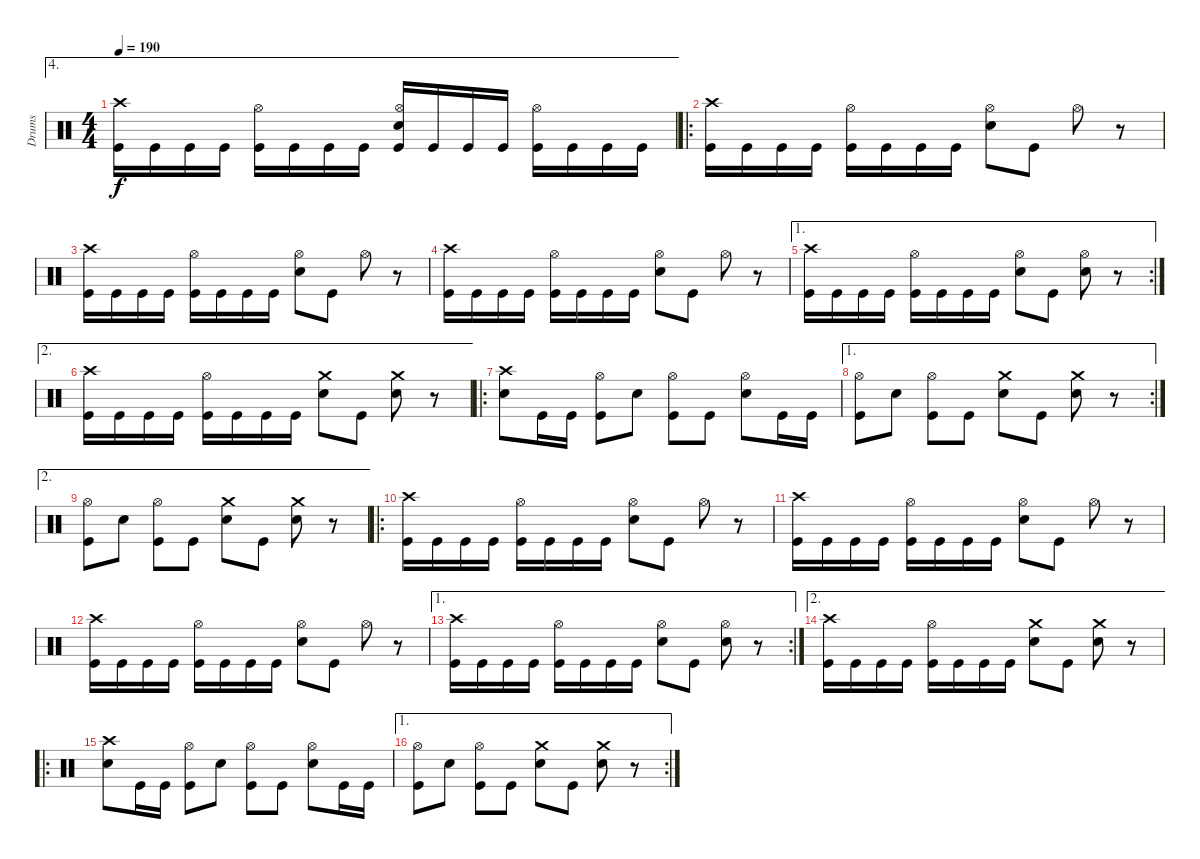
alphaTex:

\track ("Drums" "Drums") {instrument percussion}
\staff {score}
\articulation defaults
\ae 4
\ts (4 4)
\tempo 190
\clef neutral
\ks c
("Crash high (hit)" "Kick (hit)").16{dy f} "Kick (hit)".16 "Kick (hit)".16 "Kick (hit)".16 ("Hi-Hat (open)" "Kick (hit)").16 "Kick (hit)".16 "Kick (hit)".16 "Kick (hit)".16 ("Hi-Hat (open)" "Electric Snare (hit)" "Kick (hit)").16 "Kick (hit)".16 "Kick (hit)".16 "Kick (hit)".16 ("Hi-Hat (open)" "Kick (hit)").16 "Kick (hit)".16 "Kick (hit)".16 "Kick (hit)".16 |
\ro
("Crash high (hit)" "Kick (hit)").16 "Kick (hit)".16 "Kick (hit)".16 "Kick (hit)".16 ("Hi-Hat (open)" "Kick (hit)").16 "Kick (hit)".16 "Kick (hit)".16 "Kick (hit)".16 ("Hi-Hat (open)" "Electric Snare (hit)").8 "Kick (hit)".8 "Hi-Hat (open)".8 r.8 |
("Crash high (hit)" "Kick (hit)").16 "Kick (hit)".16 "Kick (hit)".16 "Kick (hit)".16 ("Hi-Hat (open)" "Kick (hit)").16 "Kick (hit)".16 "Kick (hit)".16 "Kick (hit)".16 ("Hi-Hat (open)" "Electric Snare (hit)").8 "Kick (hit)".8 "Hi-Hat (open)".8 r.8 |
("Crash high (hit)" "Kick (hit)").16 "Kick (hit)".16 "Kick (hit)".16 "Kick (hit)".16 ("Hi-Hat (open)" "Kick (hit)").16 "Kick (hit)".16 "Kick (hit)".16 "Kick (hit)".16 ("Hi-Hat (open)" "Electric Snare (hit)").8 "Kick (hit)".8 "Hi-Hat (open)".8 r.8 |
\ae 1
\rc 2
("Crash high (hit)" "Kick (hit)").16 "Kick (hit)".16 "Kick (hit)".16 "Kick (hit)".16 ("Hi-Hat (open)" "Kick (hit)").16 "Kick (hit)".16 "Kick (hit)".16 "Kick (hit)".16 ("Hi-Hat (open)" "Electric Snare (hit)").8 "Kick (hit)".8 ("Hi-Hat (open)" "Electric Snare (hit)").8 r.8 |
\ae 2
("Crash high (hit)" "Kick (hit)").16 "Kick (hit)".16 "Kick (hit)".16 "Kick (hit)".16 ("Hi-Hat (open)" "Kick (hit)").16 "Kick (hit)".16 "Kick (hit)".16 "Kick (hit)".16 ("Crash medium (hit)" "Electric Snare (hit)").8 "Kick (hit)".8 ("Crash medium (hit)" "Electric Snare (hit)").8 r.8 |
\ro
("Crash high (hit)" "Electric Snare (hit)").8 "Kick (hit)".16 "Kick (hit)".16 ("Hi-Hat (open)" "Kick (hit)").8 "Electric Snare (hit)".8 ("Hi-Hat (open)" "Kick (hit)").8 "Kick (hit)".8 ("Hi-Hat (open)" "Electric Snare (hit)").8 "Kick (hit)".16 "Kick (hit)".16 |
\ae 1
\rc 2
("Hi-Hat (open)" "Kick (hit)").8 "Electric Snare (hit)".8 ("Hi-Hat (open)" "Kick (hit)").8 "Kick (hit)".8 ("Crash medium (hit)" "Electric Snare (hit)").8 "Kick (hit)".8 ("Crash medium (hit)" "Electric Snare (hit)").8 r.8 |
\ae 2
("Hi-Hat (open)" "Kick (hit)").8 "Electric Snare (hit)".8 ("Hi-Hat (open)" "Kick (hit)").8 "Kick (hit)".8 ("Crash medium (hit)" "Electric Snare (hit)").8 "Kick (hit)".8 ("Crash medium (hit)" "Electric Snare (hit)").8 r.8 |
\ro
("Crash high (hit)" "Kick (hit)").16 "Kick (hit)".16 "Kick (hit)".16 "Kick (hit)".16 ("Hi-Hat (open)" "Kick (hit)").16 "Kick (hit)".16 "Kick (hit)".16 "Kick (hit)".16 ("Hi-Hat (open)" "Electric Snare (hit)").8 "Kick (hit)".8 "Hi-Hat (open)".8 r.8 |
("Crash high (hit)" "Kick (hit)").16 "Kick (hit)".16 "Kick (hit)".16 "Kick (hit)".16 ("Hi-Hat (open)" "Kick (hit)").16 "Kick (hit)".16 "Kick (hit)".16 "Kick (hit)".16 ("Hi-Hat (open)" "Electric Snare (hit)").8 "Kick (hit)".8 "Hi-Hat (open)".8 r.8 |
("Crash high (hit)" "Kick (hit)").16 "Kick (hit)".16 "Kick (hit)".16 "Kick (hit)".16 ("Hi-Hat (open)" "Kick (hit)").16 "Kick (hit)".16 "Kick (hit)".16 "Kick (hit)".16 ("Hi-Hat (open)" "Electric Snare (hit)").8 "Kick (hit)".8 "Hi-Hat (open)".8 r.8 |
\ae 1
\rc 2
("Crash high (hit)" "Kick (hit)").16 "Kick (hit)".16 "Kick (hit)".16 "Kick (hit)".16 ("Hi-Hat (open)" "Kick (hit)").16 "Kick (hit)".16 "Kick (hit)".16 "Kick (hit)".16 ("Hi-Hat (open)" "Electric Snare (hit)").8 "Kick (hit)".8 ("Hi-Hat (open)" "Electric Snare (hit)").8 r.8 |
\ae 2
("Crash high (hit)" "Kick (hit)").16 "Kick (hit)".16 "Kick (hit)".16 "Kick (hit)".16 ("Hi-Hat (open)" "Kick (hit)").16 "Kick (hit)".16 "Kick (hit)".16 "Kick (hit)".16 ("Crash medium (hit)" "Electric Snare (hit)").8 "Kick (hit)".8 ("Crash medium (hit)" "Electric Snare (hit)").8 r.8 |
\ro
("Crash high (hit)" "Electric Snare (hit)").8 "Kick (hit)".16 "Kick (hit)".16 ("Hi-Hat (open)" "Kick (hit)").8 "Electric Snare (hit)".8 ("Hi-Hat (open)" "Kick (hit)").8 "Kick (hit)".8 ("Hi-Hat (open)" "Electric Snare (hit)").8 "Kick (hit)".16 "Kick (hit)".16 |
\ae 1
\rc 2
("Hi-Hat (open)" "Kick (hit)").8 "Electric Snare (hit)".8 ("Hi-Hat (open)" "Kick (hit)").8 "Kick (hit)".8 ("Crash medium (hit)" "Electric Snare (hit)").8 "Kick (hit)".8 ("Crash medium (hit)" "Electric Snare (hit)").8 r.8
